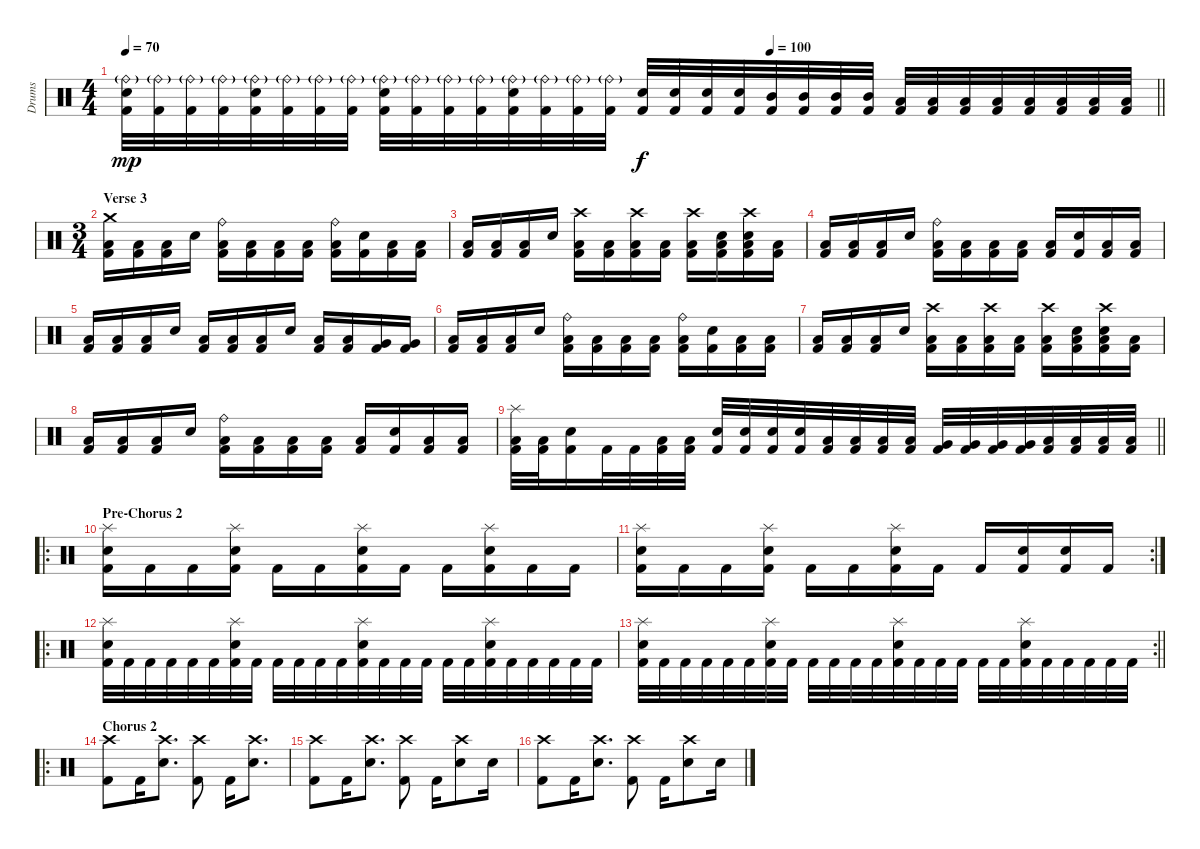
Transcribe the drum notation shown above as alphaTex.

\track ("Drums" "Drums") {instrument percussion}
\staff {score}
\articulation defaults
\ts (4 4)
\tempo 70
\tempo (100 0.625)
\clef neutral
\barLineRight lightlight
\ks c
("Ride (bell)"{g} "Electric Snare (hit)" "Kick (hit) 2").32{dy mp} ("Ride (bell)"{g} "Kick (hit) 2").32 ("Ride (bell)"{g} "Kick (hit) 2").32 ("Ride (bell)"{g} "Kick (hit) 2").32 ("Ride (bell)"{g} "Electric Snare (hit)" "Kick (hit) 2").32 ("Ride (bell)"{g} "Kick (hit) 2").32 ("Ride (bell)"{g} "Kick (hit) 2").32 ("Ride (bell)"{g} "Kick (hit) 2").32 ("Ride (bell)"{g} "Electric Snare (hit)" "Kick (hit) 2").32 ("Ride (bell)"{g} "Kick (hit) 2").32 ("Ride (bell)"{g} "Kick (hit) 2").32 ("Ride (bell)"{g} "Kick (hit) 2").32 ("Ride (bell)"{g} "Electric Snare (hit)" "Kick (hit) 2").32 ("Ride (bell)"{g} "Kick (hit) 2").32 ("Ride (bell)"{g} "Kick (hit) 2").32 ("Ride (bell)"{g} "Kick (hit) 2").32 ("Electric Snare (hit)" "Kick (hit) 2").32{dy f} ("Electric Snare (hit)" "Kick (hit) 2").32 ("Electric Snare (hit)" "Kick (hit) 2").32 ("Electric Snare (hit)" "Kick (hit) 2").32 ("Mid Tom (hit)" "Kick (hit) 2").32 ("Mid Tom (hit)" "Kick (hit) 2").32 ("Mid Tom (hit)" "Kick (hit) 2").32 ("Mid Tom (hit)" "Kick (hit) 2").32 ("Low Tom (hit)" "Kick (hit) 2").32 ("Low Tom (hit)" "Kick (hit) 2").32 ("Low Tom (hit)" "Kick (hit) 2").32 ("Low Tom (hit)" "Kick (hit) 2").32 ("Low Floor Tom (hit)" "Kick (hit) 2").32 ("Low Floor Tom (hit)" "Kick (hit) 2").32 ("Low Floor Tom (hit)" "Kick (hit) 2").32 ("Low Floor Tom (hit)" "Kick (hit) 2").32 |
\ts (3 4)
\section ("" "Verse 3")
("Crash medium (hit)" "Low Floor Tom (hit)" "Kick (hit) 2").16 ("Low Floor Tom (hit)" "Kick (hit) 2").16 ("Low Floor Tom (hit)" "Kick (hit) 2").16 "Electric Snare (hit)".16 ("Ride (bell)" "Low Floor Tom (hit)" "Kick (hit) 2").16 ("Low Floor Tom (hit)" "Kick (hit) 2").16 ("Low Floor Tom (hit)" "Kick (hit) 2").16 ("Low Floor Tom (hit)" "Kick (hit) 2").16 ("Ride (bell)" "Low Floor Tom (hit)" "Kick (hit) 2").16 ("Electric Snare (hit)" "Kick (hit) 2").16 ("Low Floor Tom (hit)" "Kick (hit) 2").16 ("Low Floor Tom (hit)" "Kick (hit) 2").16 |
("Low Floor Tom (hit)" "Kick (hit) 2").16 ("Low Floor Tom (hit)" "Kick (hit) 2").16 ("Low Floor Tom (hit)" "Kick (hit) 2").16 "Electric Snare (hit)".16 ("Crash high (hit)" "Low Floor Tom (hit)" "Kick (hit) 2").16 ("Low Floor Tom (hit)" "Kick (hit) 2").16 ("Crash high (hit)" "Low Floor Tom (hit)" "Kick (hit) 2").16 ("Low Floor Tom (hit)" "Kick (hit) 2").16 ("Crash high (hit)" "Low Floor Tom (hit)" "Kick (hit) 2").16 ("Low Floor Tom (hit)" "Electric Snare (hit)" "Kick (hit) 2").16 ("Crash high (hit)" "Low Floor Tom (hit)" "Electric Snare (hit)" "Kick (hit) 2").16 ("Low Floor Tom (hit)" "Kick (hit) 2").16 |
("Low Floor Tom (hit)" "Kick (hit) 2").16 ("Low Floor Tom (hit)" "Kick (hit) 2").16 ("Low Floor Tom (hit)" "Kick (hit) 2").16 "Electric Snare (hit)".16 ("Ride (bell)" "Low Floor Tom (hit)" "Kick (hit) 2").16 ("Low Floor Tom (hit)" "Kick (hit) 2").16 ("Low Floor Tom (hit)" "Kick (hit) 2").16 ("Low Floor Tom (hit)" "Kick (hit) 2").16 ("Low Floor Tom (hit)" "Kick (hit) 2").16 ("Electric Snare (hit)" "Kick (hit) 2").16 ("Low Floor Tom (hit)" "Kick (hit) 2").16 ("Low Floor Tom (hit)" "Kick (hit) 2").16 |
("Low Floor Tom (hit)" "Kick (hit) 2").16 ("Low Floor Tom (hit)" "Kick (hit) 2").16 ("Low Floor Tom (hit)" "Kick (hit) 2").16 "Electric Snare (hit)".16 ("Low Floor Tom (hit)" "Kick (hit) 2").16 ("Low Floor Tom (hit)" "Kick (hit) 2").16 ("Low Floor Tom (hit)" "Kick (hit) 2").16 "Electric Snare (hit)".16 ("Low Tom (hit)" "Kick (hit) 2").16 ("Low Tom (hit)" "Kick (hit) 2").16 ("Very Low Tom (hit)" "Kick (hit) 2").16 ("Very Low Tom (hit)" "Kick (hit) 2").16 |
("Low Floor Tom (hit)" "Kick (hit) 2").16 ("Low Floor Tom (hit)" "Kick (hit) 2").16 ("Low Floor Tom (hit)" "Kick (hit) 2").16 "Electric Snare (hit)".16 ("Ride (bell)" "Low Floor Tom (hit)" "Kick (hit) 2").16 ("Low Floor Tom (hit)" "Kick (hit) 2").16 ("Low Floor Tom (hit)" "Kick (hit) 2").16 ("Low Floor Tom (hit)" "Kick (hit) 2").16 ("Ride (bell)" "Low Floor Tom (hit)" "Kick (hit) 2").16 ("Electric Snare (hit)" "Kick (hit) 2").16 ("Low Floor Tom (hit)" "Kick (hit) 2").16 ("Low Floor Tom (hit)" "Kick (hit) 2").16 |
("Low Floor Tom (hit)" "Kick (hit) 2").16 ("Low Floor Tom (hit)" "Kick (hit) 2").16 ("Low Floor Tom (hit)" "Kick (hit) 2").16 "Electric Snare (hit)".16 ("Crash high (hit)" "Low Floor Tom (hit)" "Kick (hit) 2").16 ("Low Floor Tom (hit)" "Kick (hit) 2").16 ("Crash high (hit)" "Low Floor Tom (hit)" "Kick (hit) 2").16 ("Low Floor Tom (hit)" "Kick (hit) 2").16 ("Crash high (hit)" "Low Floor Tom (hit)" "Kick (hit) 2").16 ("Low Floor Tom (hit)" "Electric Snare (hit)" "Kick (hit) 2").16 ("Crash high (hit)" "Low Floor Tom (hit)" "Electric Snare (hit)" "Kick (hit) 2").16 ("Low Floor Tom (hit)" "Kick (hit) 2").16 |
("Low Floor Tom (hit)" "Kick (hit) 2").16 ("Low Floor Tom (hit)" "Kick (hit) 2").16 ("Low Floor Tom (hit)" "Kick (hit) 2").16 "Electric Snare (hit)".16 ("Ride (bell)" "Low Floor Tom (hit)" "Kick (hit) 2").16 ("Low Floor Tom (hit)" "Kick (hit) 2").16 ("Low Floor Tom (hit)" "Kick (hit) 2").16 ("Low Floor Tom (hit)" "Kick (hit) 2").16 ("Low Floor Tom (hit)" "Kick (hit) 2").16 ("Electric Snare (hit)" "Kick (hit) 2").16 ("Low Floor Tom (hit)" "Kick (hit) 2").16 ("Low Floor Tom (hit)" "Kick (hit) 2").16 |
\barLineRight lightlight
("Splash (hit)" "Low Floor Tom (hit)" "Kick (hit) 2").32 ("Low Floor Tom (hit)" "Kick (hit) 2").32 ("Electric Snare (hit)" "Kick (hit) 2").16 "Kick (hit) 2".32 "Kick (hit) 2".32 ("Low Floor Tom (hit)" "Kick (hit) 2").32 ("Low Floor Tom (hit)" "Kick (hit) 2").32 ("Electric Snare (hit)" "Kick (hit) 2").32 ("Electric Snare (hit)" "Kick (hit) 2").32 ("Electric Snare (hit)" "Kick (hit) 2").32 ("Electric Snare (hit)" "Kick (hit) 2").32 ("Low Tom (hit)" "Kick (hit) 2").32 ("Low Tom (hit)" "Kick (hit) 2").32 ("Low Tom (hit)" "Kick (hit) 2").32 ("Low Tom (hit)" "Kick (hit) 2").32 ("Very Low Tom (hit)" "Kick (hit) 2").32 ("Very Low Tom (hit)" "Kick (hit) 2").32 ("Very Low Tom (hit)" "Kick (hit) 2").32 ("Very Low Tom (hit)" "Kick (hit) 2").32 ("Low Floor Tom (hit)" "Kick (hit) 2").32 ("Low Floor Tom (hit)" "Kick (hit) 2").32 ("Low Floor Tom (hit)" "Kick (hit) 2").32 ("Low Floor Tom (hit)" "Kick (hit) 2").32 |
\ro
\section ("" "Pre-Chorus 2")
("Splash (hit)" "Electric Snare (hit)" "Kick (hit) 2").16 "Kick (hit) 2".16 "Kick (hit) 2".16 ("Splash (hit)" "Electric Snare (hit)" "Kick (hit) 2").16 "Kick (hit) 2".16 "Kick (hit) 2".16 ("Splash (hit)" "Electric Snare (hit)" "Kick (hit) 2").16 "Kick (hit) 2".16 "Kick (hit) 2".16 ("Splash (hit)" "Electric Snare (hit)" "Kick (hit) 2").16 "Kick (hit) 2".16 "Kick (hit) 2".16 |
\rc 2
("Splash (hit)" "Electric Snare (hit)" "Kick (hit) 2").16 "Kick (hit) 2".16 "Kick (hit) 2".16 ("Splash (hit)" "Electric Snare (hit)" "Kick (hit) 2").16 "Kick (hit) 2".16 "Kick (hit) 2".16 ("Splash (hit)" "Electric Snare (hit)" "Kick (hit) 2").16 "Kick (hit) 2".16 "Kick (hit) 2".16 ("Electric Snare (hit)" "Kick (hit) 2").16 ("Electric Snare (hit)" "Kick (hit) 2").16 "Kick (hit) 2".16 |
\ro
("Splash (hit)" "Electric Snare (hit)" "Kick (hit) 2").32 "Kick (hit) 2".32 "Kick (hit) 2".32 "Kick (hit) 2".32 "Kick (hit) 2".32 "Kick (hit) 2".32 ("Splash (hit)" "Electric Snare (hit)" "Kick (hit) 2").32 "Kick (hit) 2".32 "Kick (hit) 2".32 "Kick (hit) 2".32 "Kick (hit) 2".32 "Kick (hit) 2".32 ("Splash (hit)" "Electric Snare (hit)" "Kick (hit) 2").32 "Kick (hit) 2".32 "Kick (hit) 2".32 "Kick (hit) 2".32 "Kick (hit) 2".32 "Kick (hit) 2".32 ("Splash (hit)" "Electric Snare (hit)" "Kick (hit) 2").32 "Kick (hit) 2".32 "Kick (hit) 2".32 "Kick (hit) 2".32 "Kick (hit) 2".32 "Kick (hit) 2".32 |
\rc 2
\barLineRight lightlight
("Splash (hit)" "Electric Snare (hit)" "Kick (hit) 2").32 "Kick (hit) 2".32 "Kick (hit) 2".32 "Kick (hit) 2".32 "Kick (hit) 2".32 "Kick (hit) 2".32 ("Splash (hit)" "Electric Snare (hit)" "Kick (hit) 2").32 "Kick (hit) 2".32 "Kick (hit) 2".32 "Kick (hit) 2".32 "Kick (hit) 2".32 "Kick (hit) 2".32 ("Splash (hit)" "Electric Snare (hit)" "Kick (hit) 2").32 "Kick (hit) 2".32 "Kick (hit) 2".32 "Kick (hit) 2".32 "Kick (hit) 2".32 "Kick (hit) 2".32 ("Splash (hit)" "Electric Snare (hit)" "Kick (hit) 2").32 "Kick (hit) 2".32 "Kick (hit) 2".32 "Kick (hit) 2".32 "Kick (hit) 2".32 "Kick (hit) 2".32 |
\ro
\section ("" "Chorus 2")
("Crash high (hit)" "Kick (hit) 2").8 "Kick (hit) 2".16 ("Crash high (hit)" "Electric Snare (hit)").8{d} ("Crash high (hit)" "Kick (hit) 2").8 "Kick (hit) 2".16 ("Crash high (hit)" "Electric Snare (hit)").8{d} |
("Crash high (hit)" "Kick (hit) 2").8 "Kick (hit) 2".16 ("Crash high (hit)" "Electric Snare (hit)").8{d} ("Crash high (hit)" "Kick (hit) 2").8 "Kick (hit) 2".16 ("Crash high (hit)" "Electric Snare (hit)").8 "Electric Snare (hit)".16 |
("Crash high (hit)" "Kick (hit) 2").8 "Kick (hit) 2".16 ("Crash high (hit)" "Electric Snare (hit)").8{d} ("Crash high (hit)" "Kick (hit) 2").8 "Kick (hit) 2".16 ("Crash high (hit)" "Electric Snare (hit)").8 "Electric Snare (hit)".16
